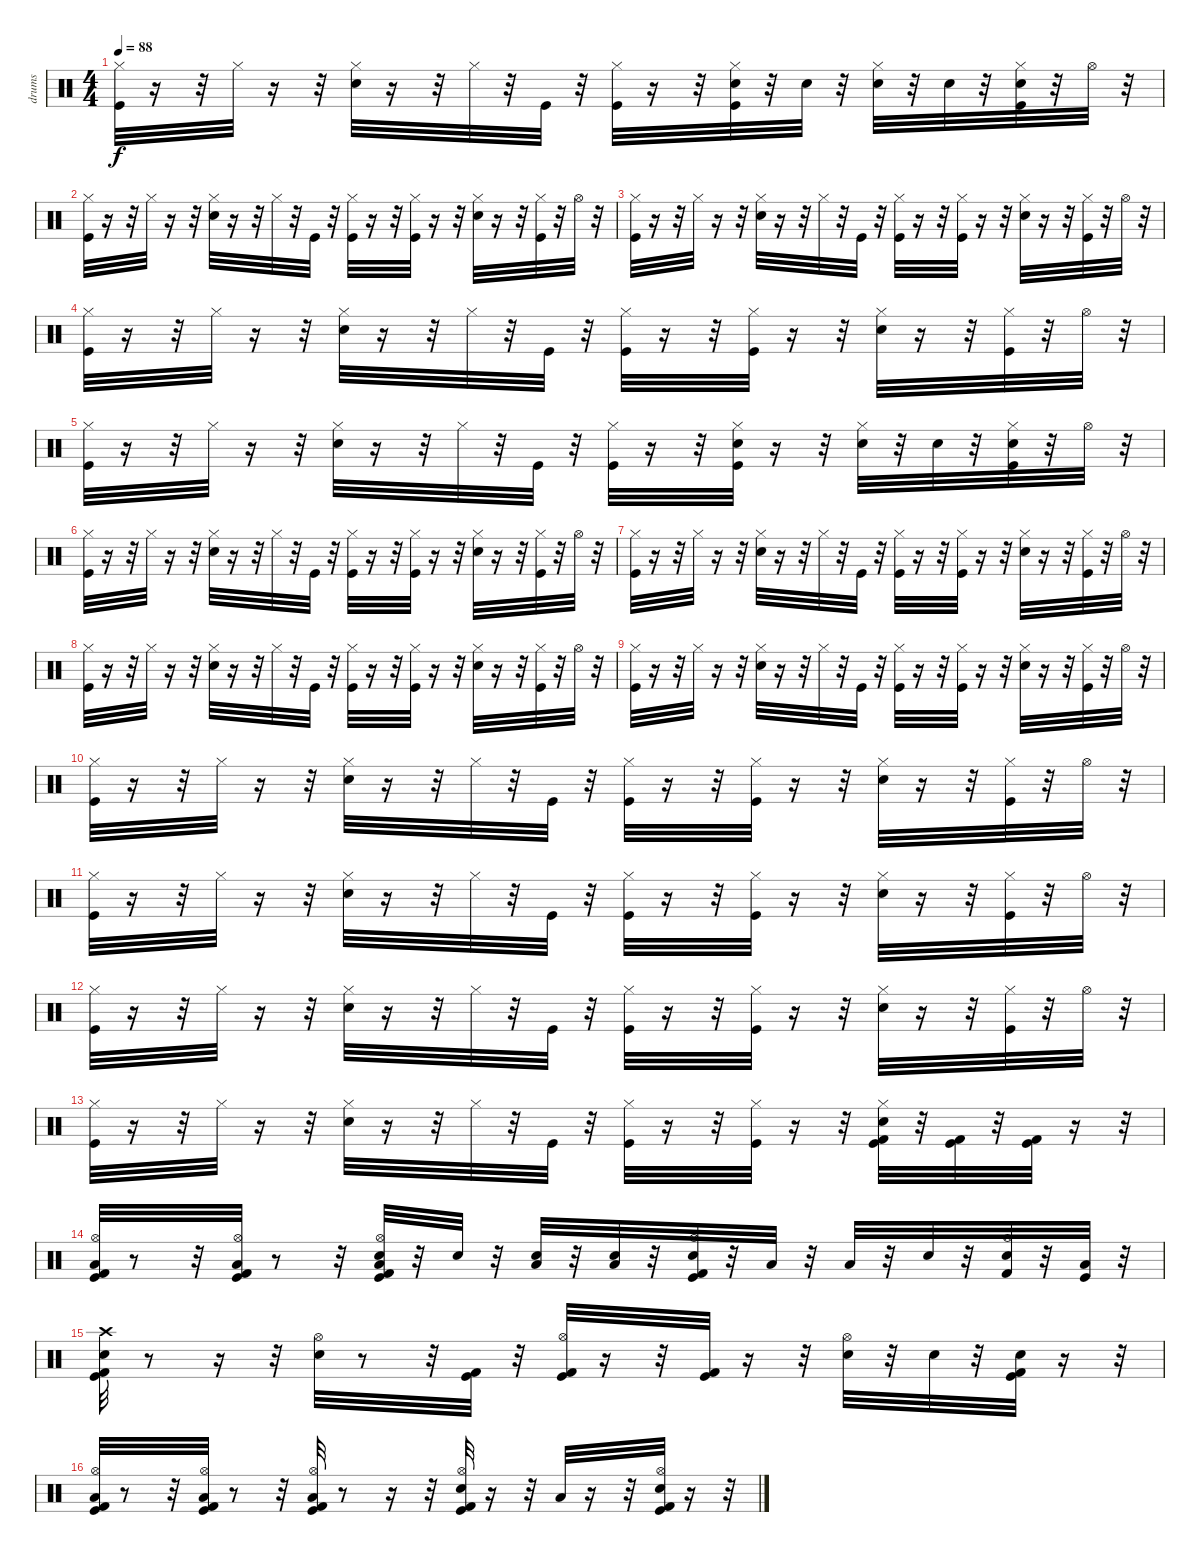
\track ("drums" "drums") {instrument percussion}
\staff {score}
\articulation defaults
\ts (4 4)
\tempo 88
\clef neutral
\ks c
("Hi-Hat (closed)" "Kick (hit)").32{dy f} r.16 r.32 "Hi-Hat (closed)".32 r.16 r.32 ("Hi-Hat (closed)" "Snare (hit) 2").32 r.16 r.32 "Hi-Hat (closed)".32 r.32 "Kick (hit)".32 r.32 ("Hi-Hat (closed)" "Kick (hit)").32 r.16 r.32 ("Snare (hit) 2" "Hi-Hat (closed)" "Kick (hit)").32 r.32 "Snare (hit) 2".32 r.32 ("Snare (hit) 2" "Hi-Hat (closed)").32 r.32 "Snare (hit) 2".32 r.32 ("Snare (hit) 2" "Kick (hit)" "Hi-Hat (closed)").32 r.32 "Hi-Hat (open)".32 r.32 |
("Hi-Hat (closed)" "Kick (hit)").32 r.16 r.32 "Hi-Hat (closed)".32 r.16 r.32 ("Hi-Hat (closed)" "Snare (hit) 2").32 r.16 r.32 "Hi-Hat (closed)".32 r.32 "Kick (hit)".32 r.32 ("Hi-Hat (closed)" "Kick (hit)").32 r.16 r.32 ("Hi-Hat (closed)" "Kick (hit)").32 r.16 r.32 ("Snare (hit) 2" "Hi-Hat (closed)").32 r.16 r.32 ("Kick (hit)" "Hi-Hat (closed)").32 r.32 "Hi-Hat (open)".32 r.32 |
("Hi-Hat (closed)" "Kick (hit)").32 r.16 r.32 "Hi-Hat (closed)".32 r.16 r.32 ("Hi-Hat (closed)" "Snare (hit) 2").32 r.16 r.32 "Hi-Hat (closed)".32 r.32 "Kick (hit)".32 r.32 ("Hi-Hat (closed)" "Kick (hit)").32 r.16 r.32 ("Hi-Hat (closed)" "Kick (hit)").32 r.16 r.32 ("Snare (hit) 2" "Hi-Hat (closed)").32 r.16 r.32 ("Kick (hit)" "Hi-Hat (closed)").32 r.32 "Hi-Hat (open)".32 r.32 |
("Hi-Hat (closed)" "Kick (hit)").32 r.16 r.32 "Hi-Hat (closed)".32 r.16 r.32 ("Hi-Hat (closed)" "Snare (hit) 2").32 r.16 r.32 "Hi-Hat (closed)".32 r.32 "Kick (hit)".32 r.32 ("Hi-Hat (closed)" "Kick (hit)").32 r.16 r.32 ("Hi-Hat (closed)" "Kick (hit)").32 r.16 r.32 ("Snare (hit) 2" "Hi-Hat (closed)").32 r.16 r.32 ("Kick (hit)" "Hi-Hat (closed)").32 r.32 "Hi-Hat (open)".32 r.32 |
("Hi-Hat (closed)" "Kick (hit)").32 r.16 r.32 "Hi-Hat (closed)".32 r.16 r.32 ("Hi-Hat (closed)" "Snare (hit) 2").32 r.16 r.32 "Hi-Hat (closed)".32 r.32 "Kick (hit)".32 r.32 ("Hi-Hat (closed)" "Kick (hit)").32 r.16 r.32 ("Snare (hit) 2" "Hi-Hat (closed)" "Kick (hit)").32 r.16 r.32 ("Snare (hit) 2" "Hi-Hat (closed)").32 r.32 "Snare (hit) 2".32 r.32 ("Snare (hit) 2" "Kick (hit)" "Hi-Hat (closed)").32 r.32 "Hi-Hat (open)".32 r.32 |
("Hi-Hat (closed)" "Kick (hit)").32 r.16 r.32 "Hi-Hat (closed)".32 r.16 r.32 ("Hi-Hat (closed)" "Snare (hit) 2").32 r.16 r.32 "Hi-Hat (closed)".32 r.32 "Kick (hit)".32 r.32 ("Hi-Hat (closed)" "Kick (hit)").32 r.16 r.32 ("Hi-Hat (closed)" "Kick (hit)").32 r.16 r.32 ("Snare (hit) 2" "Hi-Hat (closed)").32 r.16 r.32 ("Kick (hit)" "Hi-Hat (closed)").32 r.32 "Hi-Hat (open)".32 r.32 |
("Hi-Hat (closed)" "Kick (hit)").32 r.16 r.32 "Hi-Hat (closed)".32 r.16 r.32 ("Hi-Hat (closed)" "Snare (hit) 2").32 r.16 r.32 "Hi-Hat (closed)".32 r.32 "Kick (hit)".32 r.32 ("Hi-Hat (closed)" "Kick (hit)").32 r.16 r.32 ("Hi-Hat (closed)" "Kick (hit)").32 r.16 r.32 ("Snare (hit) 2" "Hi-Hat (closed)").32 r.16 r.32 ("Kick (hit)" "Hi-Hat (closed)").32 r.32 "Hi-Hat (open)".32 r.32 |
("Hi-Hat (closed)" "Kick (hit)").32 r.16 r.32 "Hi-Hat (closed)".32 r.16 r.32 ("Hi-Hat (closed)" "Snare (hit) 2").32 r.16 r.32 "Hi-Hat (closed)".32 r.32 "Kick (hit)".32 r.32 ("Hi-Hat (closed)" "Kick (hit)").32 r.16 r.32 ("Hi-Hat (closed)" "Kick (hit)").32 r.16 r.32 ("Snare (hit) 2" "Hi-Hat (closed)").32 r.16 r.32 ("Kick (hit)" "Hi-Hat (closed)").32 r.32 "Hi-Hat (open)".32 r.32 |
("Hi-Hat (closed)" "Kick (hit)").32 r.16 r.32 "Hi-Hat (closed)".32 r.16 r.32 ("Hi-Hat (closed)" "Snare (hit) 2").32 r.16 r.32 "Hi-Hat (closed)".32 r.32 "Kick (hit)".32 r.32 ("Hi-Hat (closed)" "Kick (hit)").32 r.16 r.32 ("Hi-Hat (closed)" "Kick (hit)").32 r.16 r.32 ("Snare (hit) 2" "Hi-Hat (closed)").32 r.16 r.32 ("Kick (hit)" "Hi-Hat (closed)").32 r.32 "Hi-Hat (open)".32 r.32 |
("Hi-Hat (closed)" "Kick (hit)").32 r.16 r.32 "Hi-Hat (closed)".32 r.16 r.32 ("Hi-Hat (closed)" "Snare (hit) 2").32 r.16 r.32 "Hi-Hat (closed)".32 r.32 "Kick (hit)".32 r.32 ("Hi-Hat (closed)" "Kick (hit)").32 r.16 r.32 ("Hi-Hat (closed)" "Kick (hit)").32 r.16 r.32 ("Snare (hit) 2" "Hi-Hat (closed)").32 r.16 r.32 ("Kick (hit)" "Hi-Hat (closed)").32 r.32 "Hi-Hat (open)".32 r.32 |
("Hi-Hat (closed)" "Kick (hit)").32 r.16 r.32 "Hi-Hat (closed)".32 r.16 r.32 ("Hi-Hat (closed)" "Snare (hit) 2").32 r.16 r.32 "Hi-Hat (closed)".32 r.32 "Kick (hit)".32 r.32 ("Hi-Hat (closed)" "Kick (hit)").32 r.16 r.32 ("Hi-Hat (closed)" "Kick (hit)").32 r.16 r.32 ("Snare (hit) 2" "Hi-Hat (closed)").32 r.16 r.32 ("Kick (hit)" "Hi-Hat (closed)").32 r.32 "Hi-Hat (open)".32 r.32 |
("Hi-Hat (closed)" "Kick (hit)").32 r.16 r.32 "Hi-Hat (closed)".32 r.16 r.32 ("Hi-Hat (closed)" "Snare (hit) 2").32 r.16 r.32 "Hi-Hat (closed)".32 r.32 "Kick (hit)".32 r.32 ("Hi-Hat (closed)" "Kick (hit)").32 r.16 r.32 ("Hi-Hat (closed)" "Kick (hit)").32 r.16 r.32 ("Snare (hit) 2" "Hi-Hat (closed)").32 r.16 r.32 ("Kick (hit)" "Hi-Hat (closed)").32 r.32 "Hi-Hat (open)".32 r.32 |
("Hi-Hat (closed)" "Kick (hit)").32 r.16 r.32 "Hi-Hat (closed)".32 r.16 r.32 ("Hi-Hat (closed)" "Snare (hit) 2").32 r.16 r.32 "Hi-Hat (closed)".32 r.32 "Kick (hit)".32 r.32 ("Hi-Hat (closed)" "Kick (hit)").32 r.16 r.32 ("Hi-Hat (closed)" "Kick (hit)").32 r.16 r.32 ("Kick (hit) 2" "Kick (hit)" "Snare (hit) 2" "Hi-Hat (closed)").32 r.32 ("Kick (hit) 2" "Kick (hit)").32 r.32 ("Kick (hit)" "Kick (hit) 2").32 r.16 r.32 |
("Kick (hit)" "Kick (hit) 2" "Low Floor Tom (hit)" "Hi-Hat (open)").32 r.8 r.32 ("Low Floor Tom (hit)" "Hi-Hat (open)" "Kick (hit)" "Kick (hit) 2").32 r.8 r.32 ("Snare (hit) 2" "Kick (hit)" "Kick (hit) 2" "Hi-Hat (open)" "Low Floor Tom (hit)").32 r.32 "Snare (hit) 2".32 r.32 ("Snare (hit) 2" "Low Tom (hit)").32 r.32 ("Snare (hit) 2" "Low Floor Tom (hit)").32 r.32 ("Kick (hit) 2" "Hi-Hat (open)" "Snare (hit) 2" "Kick (hit)").32 r.32 "Low Tom (hit)".32 r.32 "Low Floor Tom (hit)".32 r.32 "Snare (hit) 2".32 r.32 ("Kick (hit) 2" "Hi-Hat (open)" "Snare (hit) 2").32 r.32 ("Kick (hit)" "Low Floor Tom (hit)").32 r.32 |
("Kick (hit)" "Crash high (hit)" "Snare (hit) 2" "Kick (hit) 2").32 r.8 r.16 r.32 ("Hi-Hat (open)" "Snare (hit) 2").32 r.8 r.32 ("Kick (hit) 2" "Kick (hit)").32 r.32 ("Kick (hit) 2" "Hi-Hat (open)" "Kick (hit)").32 r.16 r.32 ("Kick (hit) 2" "Kick (hit)").32 r.16 r.32 ("Hi-Hat (open)" "Snare (hit) 2").32 r.32 "Snare (hit) 2".32 r.32 ("Kick (hit)" "Kick (hit) 2" "Snare (hit) 2").32 r.16 r.32 |
("Kick (hit) 2" "Low Floor Tom (hit)" "Hi-Hat (open)" "Kick (hit)").32 r.8 r.32 ("Kick (hit)" "Kick (hit) 2" "Low Floor Tom (hit)" "Hi-Hat (open)").32 r.8 r.32 ("Kick (hit)" "Kick (hit) 2" "Low Floor Tom (hit)" "Hi-Hat (open)").32 r.8 r.16 r.32 ("Kick (hit)" "Snare (hit) 2" "Kick (hit) 2" "Hi-Hat (open)").32 r.16 r.32 "Low Floor Tom (hit)".32 r.16 r.32 ("Kick (hit)" "Kick (hit) 2" "Hi-Hat (open)" "Snare (hit) 2").32 r.16 r.32
